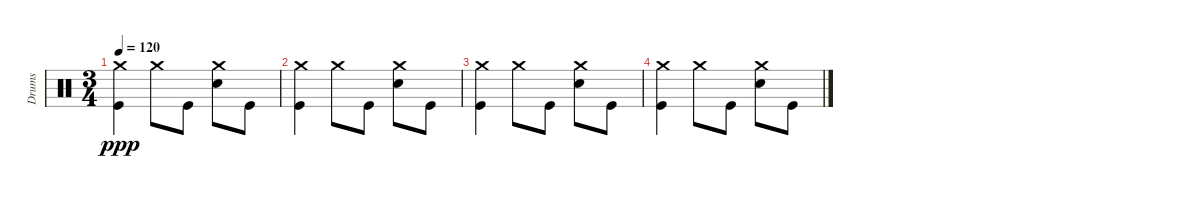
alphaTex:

\track ("Drums" "Drums") {instrument percussion}
\staff {score}
\articulation defaults
\ts (3 4)
\tempo 120
\clef neutral
\ks c
("Crash medium (hit)" "Kick (hit)").4{dy ppp balance 11} "Crash medium (hit)".8{balance 12} "Kick (hit)".8 ("Crash medium (hit)" "Snare (hit) 2").8{balance 13} "Kick (hit)".8 |
("Crash medium (hit)" "Kick (hit)").4{balance 14} "Crash medium (hit)".8{balance 15} "Kick (hit)".8 ("Crash medium (hit)" "Snare (hit) 2").8{balance 16} "Kick (hit)".8 |
("Crash medium (hit)" "Kick (hit)").4{balance 16} "Crash medium (hit)".8{balance 15} "Kick (hit)".8 ("Crash medium (hit)" "Snare (hit) 2").8{balance 14} "Kick (hit)".8 |
("Crash medium (hit)" "Kick (hit)").4{balance 13} "Crash medium (hit)".8{balance 12} "Kick (hit)".8 ("Crash medium (hit)" "Snare (hit) 2").8{balance 11} "Kick (hit)".8
